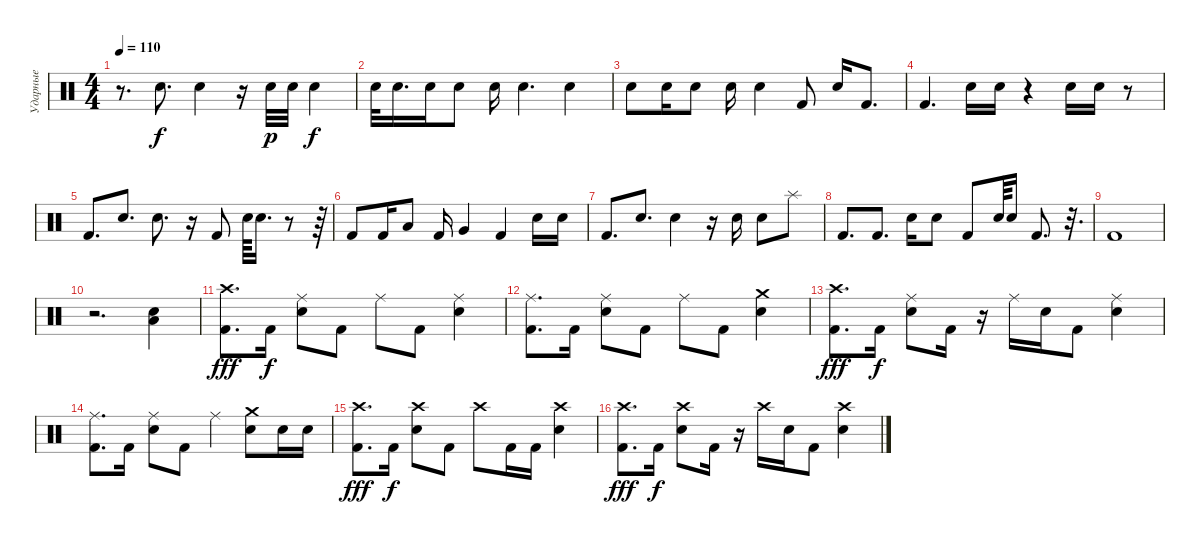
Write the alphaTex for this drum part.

\track ("Ударные" "Ударные") {instrument percussion}
\staff {score}
\articulation defaults
\ts (4 4)
\tempo 110
\clef neutral
\ks c
r.8{d dy f} "Electric Snare (hit)".8{d} "Electric Snare (hit)".4 r.16 "Electric Snare (hit)".32{dy p} "Electric Snare (hit)".32 "Electric Snare (hit)".4{dy f} |
"Electric Snare (hit)".32 "Electric Snare (hit)".16{d} "Electric Snare (hit)".16 "Electric Snare (hit)".8 "Electric Snare (hit)".16 "Electric Snare (hit)".4{d} "Electric Snare (hit)".4 |
"Electric Snare (hit)".8 "Electric Snare (hit)".16 "Electric Snare (hit)".8 "Electric Snare (hit)".16 "Electric Snare (hit)".4 "Kick (hit) 2".8 "Electric Snare (hit)".16 "Kick (hit) 2".8{d} |
"Kick (hit) 2".4{d} "Electric Snare (hit)".16 "Electric Snare (hit)".16 r.4 "Electric Snare (hit)".16 "Electric Snare (hit)".16 r.8 |
"Kick (hit) 2".8{d} "Electric Snare (hit)".8{d} "Electric Snare (hit)".8{d} r.16 "Kick (hit) 2".8 "Electric Snare (hit)".64 "Electric Snare (hit)".16{d} r.8 r.64 |
"Kick (hit) 2".8 "Kick (hit) 2".16 "Low Tom (hit)".8 "Kick (hit) 2".16 "Very Low Tom (hit)".4 "Kick (hit) 2".4 "Electric Snare (hit)".16 "Electric Snare (hit)".16 |
"Kick (hit) 2".8{d} "Electric Snare (hit)".8{d} "Electric Snare (hit)".4 r.16 "Electric Snare (hit)".16 "Electric Snare (hit)".8 "Splash (hit)".8 |
"Kick (hit) 2".8{d} "Kick (hit) 2".8{d} "Electric Snare (hit)".16 "Electric Snare (hit)".8 "Kick (hit) 2".8 "Electric Snare (hit)".64 "Electric Snare (hit)".16 "Kick (hit) 2".8{d} r.32{d} |
"Kick (hit) 2".1 |
r.2{d} ("Electric Snare (hit)" "Low Floor Tom (hit)").4 |
("Crash high (hit)" "Kick (hit) 2").8{d dy fff} "Kick (hit) 2".16{dy f} ("Electric Snare (hit)" "Ride (middle)").8 "Kick (hit) 2".8 "Ride (middle)".8 "Kick (hit) 2".8 ("Electric Snare (hit)" "Ride (middle)").4 |
("Kick (hit) 2" "Ride (middle)").8{d} "Kick (hit) 2".16 ("Electric Snare (hit)" "Ride (middle)").8 "Kick (hit) 2".8 "Ride (middle)".8 "Kick (hit) 2".8 ("Crash medium (hit)" "Electric Snare (hit)").4 |
("Crash high (hit)" "Kick (hit) 2").8{d dy fff} "Kick (hit) 2".16{dy f} ("Electric Snare (hit)" "Ride (middle)").8 "Kick (hit) 2".16 r.16 "Ride (middle)".16 "Electric Snare (hit)".16 "Kick (hit) 2".8 ("Electric Snare (hit)" "Ride (middle)").4 |
("Kick (hit) 2" "Ride (middle)").8{d} "Kick (hit) 2".16 ("Electric Snare (hit)" "Ride (middle)").8 "Kick (hit) 2".8 "Ride (middle)".4 ("Crash medium (hit)" "Electric Snare (hit)").8 "Electric Snare (hit)".16 "Electric Snare (hit)".16 |
("Crash high (hit)" "Kick (hit) 2").8{d dy fff} "Kick (hit) 2".16{dy f} ("Crash high (hit)" "Electric Snare (hit)").8 "Kick (hit) 2".8 "Crash high (hit)".8 "Kick (hit) 2".16 "Kick (hit) 2".16 ("Crash high (hit)" "Electric Snare (hit)").4 |
("Crash high (hit)" "Kick (hit) 2").8{d dy fff} "Kick (hit) 2".16{dy f} ("Crash high (hit)" "Electric Snare (hit)").8 "Kick (hit) 2".16 r.16 "Crash high (hit)".16 "Electric Snare (hit)".16 "Kick (hit) 2".8 ("Crash high (hit)" "Electric Snare (hit)").4
